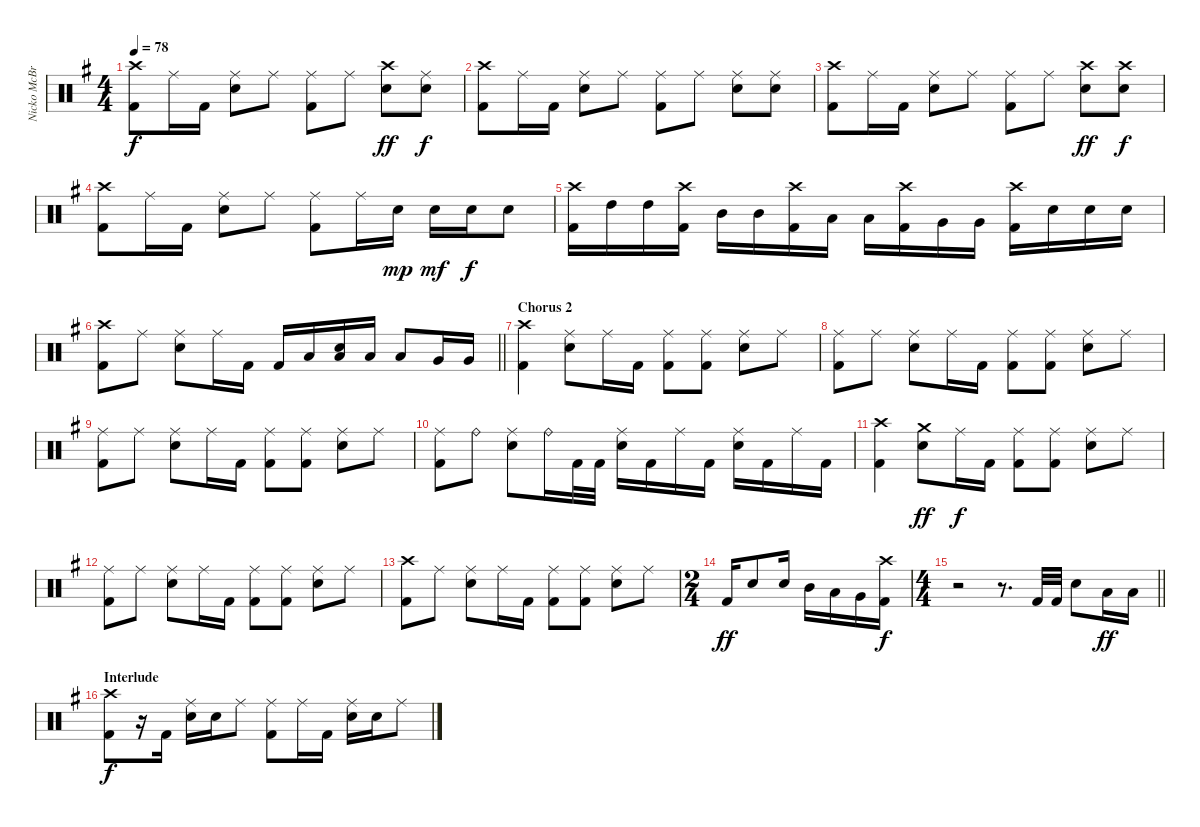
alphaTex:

\track ("Nicko McBrain" "Nicko McBr") {instrument percussion}
\staff {score}
\articulation defaults
\ts (4 4)
\tempo 78
\clef neutral
\ks g
("Crash high (hit)" "Kick (hit) 2").8{dy f} "Ride (middle)".16 "Kick (hit) 2".16 ("Ride (middle)" "Electric Snare (hit)").8 "Ride (middle)".8 ("Ride (middle)" "Kick (hit) 2").8 "Ride (middle)".8 ("Crash high (hit)" "Electric Snare (hit)").8{dy ff} ("Ride (middle)" "Electric Snare (hit)").8{dy f} |
("Crash high (hit)" "Kick (hit) 2").8 "Ride (middle)".16 "Kick (hit) 2".16 ("Ride (middle)" "Electric Snare (hit)").8 "Ride (middle)".8 ("Ride (middle)" "Kick (hit) 2").8 "Ride (middle)".8 ("Ride (middle)" "Electric Snare (hit)").8 ("Ride (middle)" "Electric Snare (hit)").8 |
("Crash high (hit)" "Kick (hit) 2").8 "Ride (middle)".16 "Kick (hit) 2".16 ("Ride (middle)" "Electric Snare (hit)").8 "Ride (middle)".8 ("Ride (middle)" "Kick (hit) 2").8 "Ride (middle)".8 ("Crash high (hit)" "Electric Snare (hit)").8{dy ff} ("Crash high (hit)" "Electric Snare (hit)").8{dy f} |
("Crash high (hit)" "Kick (hit) 2").8 "Ride (middle)".16 "Kick (hit) 2".16 ("Ride (middle)" "Electric Snare (hit)").8 "Ride (middle)".8 ("Ride (middle)" "Kick (hit) 2").8 "Ride (middle)".16 "Electric Snare (hit)".16{dy mp} "Electric Snare (hit)".16{dy mf} "Electric Snare (hit)".16{dy f} "Electric Snare (hit)".8 |
("Crash high (hit)" "Kick (hit) 2").16 "High Tom (hit)".16 "High Tom (hit)".16 ("Crash high (hit)" "Kick (hit) 2").16 "Mid Tom (hit)".16 "Mid Tom (hit)".16 ("Crash high (hit)" "Kick (hit) 2").16 "Low Tom (hit)".16 "Low Tom (hit)".16 ("Crash high (hit)" "Kick (hit) 2").16 "Very Low Tom (hit)".16 "Very Low Tom (hit)".16 ("Crash high (hit)" "Kick (hit) 2").16 "Electric Snare (hit)".16 "Electric Snare (hit)".16 "Electric Snare (hit)".16 |
\barLineRight lightlight
("Crash high (hit)" "Kick (hit) 2").8 "Ride (middle)".8 ("Ride (middle)" "Electric Snare (hit)").8 "Ride (middle)".16 "Kick (hit) 2".16 "Kick (hit) 2".16 "Low Tom (hit)".16 ("Low Tom (hit)" "Electric Snare (hit)").16 "Low Tom (hit)".16 "Low Tom (hit)".8 "Very Low Tom (hit)".16 "Very Low Tom (hit)".16 |
\section ("" "Chorus 2")
("Crash high (hit)" "Kick (hit) 2").4 ("Ride (middle)" "Electric Snare (hit)").8 "Ride (middle)".16 "Kick (hit) 2".16 ("Ride (middle)" "Kick (hit) 2").8 ("Ride (middle)" "Kick (hit) 2").8 ("Ride (middle)" "Electric Snare (hit)").8 "Ride (middle)".8 |
("Ride (middle)" "Kick (hit) 2").8 "Ride (middle)".8 ("Ride (middle)" "Electric Snare (hit)").8 "Ride (middle)".16 "Kick (hit) 2".16 ("Ride (middle)" "Kick (hit) 2").8 ("Ride (middle)" "Kick (hit) 2").8 ("Ride (middle)" "Electric Snare (hit)").8 "Ride (middle)".8 |
("Ride (middle)" "Kick (hit) 2").8 "Ride (middle)".8 ("Ride (middle)" "Electric Snare (hit)").8 "Ride (middle)".16 "Kick (hit) 2".16 ("Ride (middle)" "Kick (hit) 2").8 ("Ride (middle)" "Kick (hit) 2").8 ("Ride (middle)" "Electric Snare (hit)").8 "Ride (middle)".8 |
("Ride (middle)" "Kick (hit) 2").8 "Ride (bell)".8 ("Ride (middle)" "Electric Snare (hit)").8 "Ride (bell)".16 "Kick (hit) 2".32 "Kick (hit) 2".32 ("Ride (middle)" "Electric Snare (hit)").16 "Kick (hit) 2".16 "Ride (middle)".16 "Kick (hit) 2".16 ("Ride (middle)" "Electric Snare (hit)").16 "Kick (hit) 2".16 "Ride (middle)".16 "Kick (hit) 2".16 |
("Crash high (hit)" "Kick (hit) 2").4 ("Crash medium (hit)" "Electric Snare (hit)").8{dy ff} "Ride (middle)".16{dy f} "Kick (hit) 2".16 ("Ride (middle)" "Kick (hit) 2").8 ("Ride (middle)" "Kick (hit) 2").8 ("Ride (middle)" "Electric Snare (hit)").8 "Ride (middle)".8 |
("Ride (middle)" "Kick (hit) 2").8 "Ride (middle)".8 ("Ride (middle)" "Electric Snare (hit)").8 "Ride (middle)".16 "Kick (hit) 2".16 ("Ride (middle)" "Kick (hit) 2").8 ("Ride (middle)" "Kick (hit) 2").8 ("Ride (middle)" "Electric Snare (hit)").8 "Ride (middle)".8 |
("Crash high (hit)" "Kick (hit) 2").8 "Ride (middle)".8 ("Ride (middle)" "Electric Snare (hit)").8 "Ride (middle)".16 "Kick (hit) 2".16 ("Ride (middle)" "Kick (hit) 2").8 ("Ride (middle)" "Kick (hit) 2").8 ("Ride (middle)" "Electric Snare (hit)").8 "Ride (middle)".8 |
\ts (2 4)
"Kick (hit) 2".16{dy ff} "Electric Snare (hit)".8 "Electric Snare (hit)".16 "Mid Tom (hit)".16 "Low Tom (hit)".16 "Very Low Tom (hit)".16 ("Crash high (hit)" "Kick (hit) 2").16{dy f} |
\ts (4 4)
\barLineRight lightlight
r.2 r.8{d} "Kick (hit) 2".32 "Kick (hit) 2".32 "Electric Snare (hit)".8 "Low Tom (hit)".16{dy ff} "Low Tom (hit)".16 |
\section ("" "Interlude")
("Crash high (hit)" "Kick (hit) 2").8{dy f} r.16 "Kick (hit) 2".16 ("Ride (middle)" "Electric Snare (hit)").16 "Electric Snare (hit)".16 "Ride (middle)".8 ("Ride (middle)" "Kick (hit) 2").8 "Ride (middle)".16 "Kick (hit) 2".16 ("Ride (middle)" "Electric Snare (hit)").16 "Electric Snare (hit)".16 "Ride (middle)".8
